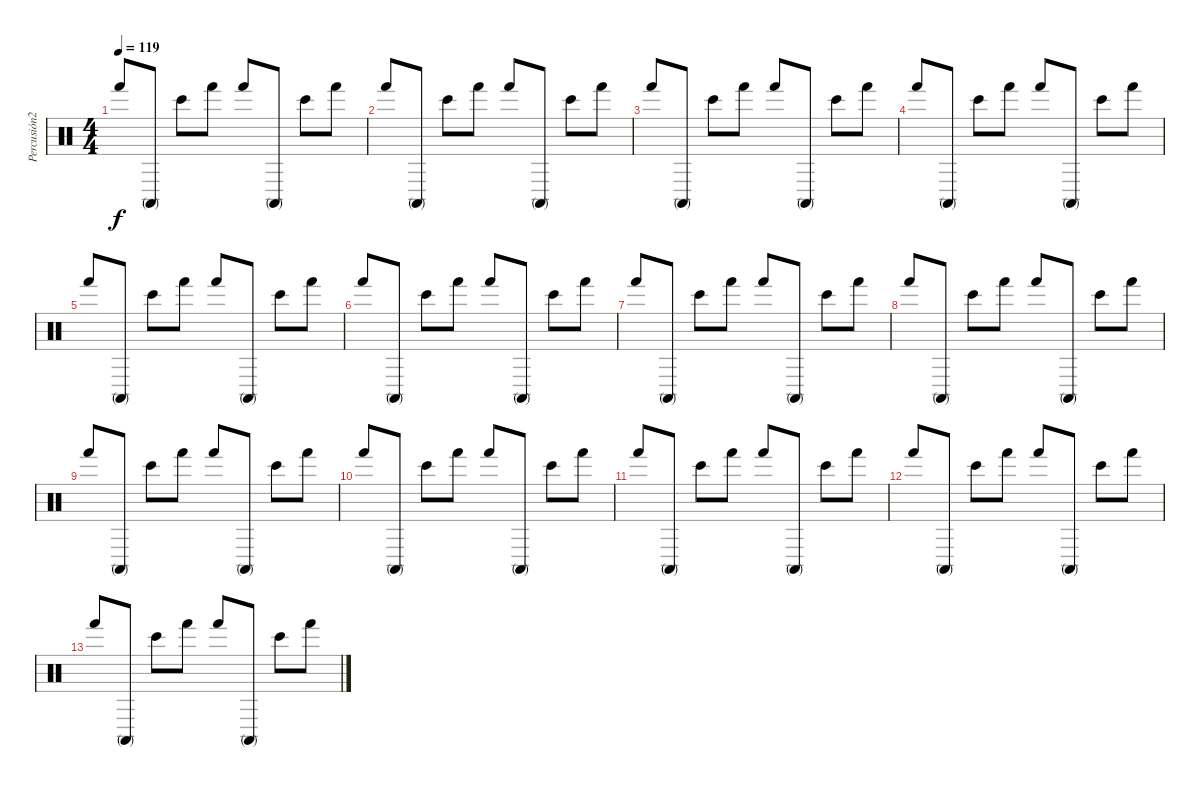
\track ("Percusión2" "Percusión2") {instrument percussion}
\staff {score}
\articulation defaults
\ts (4 4)
\tempo 119
\clef neutral
\ks c "Hand (hit)".8{dy f} "Conga high (mute)".8 "Bongo High (hit)".8 "Hand (hit)".8 "Hand (hit)".8 "Conga high (mute)".8 "Bongo High (hit)".8 "Hand (hit)".8
|
"Hand (hit)".8 "Conga high (mute)".8 "Bongo High (hit)".8 "Hand (hit)".8 "Hand (hit)".8 "Conga high (mute)".8 "Bongo High (hit)".8 "Hand (hit)".8 |
"Hand (hit)".8 "Conga high (mute)".8 "Bongo High (hit)".8 "Hand (hit)".8 "Hand (hit)".8 "Conga high (mute)".8 "Bongo High (hit)".8 "Hand (hit)".8 |
"Hand (hit)".8 "Conga high (mute)".8 "Bongo High (hit)".8 "Hand (hit)".8 "Hand (hit)".8 "Conga high (mute)".8 "Bongo High (hit)".8 "Hand (hit)".8 |
"Hand (hit)".8 "Conga high (mute)".8 "Bongo High (hit)".8 "Hand (hit)".8 "Hand (hit)".8 "Conga high (mute)".8 "Bongo High (hit)".8 "Hand (hit)".8 |
"Hand (hit)".8 "Conga high (mute)".8 "Bongo High (hit)".8 "Hand (hit)".8 "Hand (hit)".8 "Conga high (mute)".8 "Bongo High (hit)".8 "Hand (hit)".8 |
"Hand (hit)".8 "Conga high (mute)".8 "Bongo High (hit)".8 "Hand (hit)".8 "Hand (hit)".8 "Conga high (mute)".8 "Bongo High (hit)".8 "Hand (hit)".8 |
"Hand (hit)".8 "Conga high (mute)".8 "Bongo High (hit)".8 "Hand (hit)".8 "Hand (hit)".8 "Conga high (mute)".8 "Bongo High (hit)".8 "Hand (hit)".8 |
"Hand (hit)".8 "Conga high (mute)".8 "Bongo High (hit)".8 "Hand (hit)".8 "Hand (hit)".8 "Conga high (mute)".8 "Bongo High (hit)".8 "Hand (hit)".8 |
"Hand (hit)".8 "Conga high (mute)".8 "Bongo High (hit)".8 "Hand (hit)".8 "Hand (hit)".8 "Conga high (mute)".8 "Bongo High (hit)".8 "Hand (hit)".8 |
"Hand (hit)".8 "Conga high (mute)".8 "Bongo High (hit)".8 "Hand (hit)".8 "Hand (hit)".8 "Conga high (mute)".8 "Bongo High (hit)".8 "Hand (hit)".8 |
"Hand (hit)".8 "Conga high (mute)".8 "Bongo High (hit)".8 "Hand (hit)".8 "Hand (hit)".8 "Conga high (mute)".8 "Bongo High (hit)".8 "Hand (hit)".8 |
"Hand (hit)".8 "Conga high (mute)".8 "Bongo High (hit)".8 "Hand (hit)".8 "Hand (hit)".8 "Conga high (mute)".8 "Bongo High (hit)".8 "Hand (hit)".8
